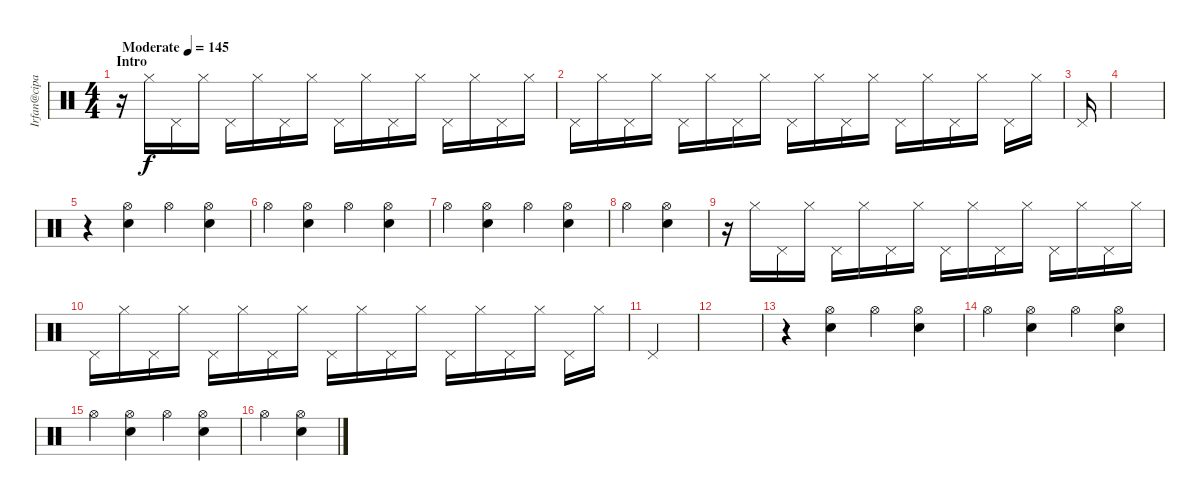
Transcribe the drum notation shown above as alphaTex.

\track ("Irfan@cipan 2" "Irfan@cipa") {instrument percussion}
\staff {score}
\articulation defaults
\ts (4 4)
\section ("" "Intro")
\tempo (145 "Moderate")
\clef neutral
\ks c
r.16{dy f} "Hi-Hat (closed)".16 "Pedal Hi-Hat (hit)".16 "Hi-Hat (closed)".16 "Pedal Hi-Hat (hit)".16 "Hi-Hat (closed)".16 "Pedal Hi-Hat (hit)".16 "Hi-Hat (closed)".16 "Pedal Hi-Hat (hit)".16 "Hi-Hat (closed)".16 "Pedal Hi-Hat (hit)".16 "Hi-Hat (closed)".16 "Pedal Hi-Hat (hit)".16 "Hi-Hat (closed)".16 "Pedal Hi-Hat (hit)".16 "Hi-Hat (closed)".16 |
"Pedal Hi-Hat (hit)".16 "Hi-Hat (closed)".16 "Pedal Hi-Hat (hit)".16 "Hi-Hat (closed)".16 "Pedal Hi-Hat (hit)".16 "Hi-Hat (closed)".16 "Pedal Hi-Hat (hit)".16 "Hi-Hat (closed)".16 "Pedal Hi-Hat (hit)".16 "Hi-Hat (closed)".16 "Pedal Hi-Hat (hit)".16 "Hi-Hat (closed)".16 "Pedal Hi-Hat (hit)".16 "Hi-Hat (closed)".16 "Pedal Hi-Hat (hit)".16 "Hi-Hat (closed)".16 "Pedal Hi-Hat (hit)".16 "Hi-Hat (closed)".16 |
"Pedal Hi-Hat (hit)".16 |
|
r.4 ("Hi-Hat (open)" "Electric Snare (hit)").4 "Hi-Hat (open)".4 ("Hi-Hat (open)" "Electric Snare (hit)").4 |
"Hi-Hat (open)".4 ("Hi-Hat (open)" "Electric Snare (hit)").4 "Hi-Hat (open)".4 ("Hi-Hat (open)" "Electric Snare (hit)").4 |
"Hi-Hat (open)".4 ("Hi-Hat (open)" "Electric Snare (hit)").4 "Hi-Hat (open)".4 ("Hi-Hat (open)" "Electric Snare (hit)").4 |
"Hi-Hat (open)".4 ("Hi-Hat (open)" "Electric Snare (hit)").4 |
r.16 "Hi-Hat (closed)".16 "Pedal Hi-Hat (hit)".16 "Hi-Hat (closed)".16 "Pedal Hi-Hat (hit)".16 "Hi-Hat (closed)".16 "Pedal Hi-Hat (hit)".16 "Hi-Hat (closed)".16 "Pedal Hi-Hat (hit)".16 "Hi-Hat (closed)".16 "Pedal Hi-Hat (hit)".16 "Hi-Hat (closed)".16 "Pedal Hi-Hat (hit)".16 "Hi-Hat (closed)".16 "Pedal Hi-Hat (hit)".16 "Hi-Hat (closed)".16 |
"Pedal Hi-Hat (hit)".16 "Hi-Hat (closed)".16 "Pedal Hi-Hat (hit)".16 "Hi-Hat (closed)".16 "Pedal Hi-Hat (hit)".16 "Hi-Hat (closed)".16 "Pedal Hi-Hat (hit)".16 "Hi-Hat (closed)".16 "Pedal Hi-Hat (hit)".16 "Hi-Hat (closed)".16 "Pedal Hi-Hat (hit)".16 "Hi-Hat (closed)".16 "Pedal Hi-Hat (hit)".16 "Hi-Hat (closed)".16 "Pedal Hi-Hat (hit)".16 "Hi-Hat (closed)".16 "Pedal Hi-Hat (hit)".16 "Hi-Hat (closed)".16 |
"Pedal Hi-Hat (hit)".4 |
|
r.4 ("Hi-Hat (open)" "Electric Snare (hit)").4 "Hi-Hat (open)".4 ("Hi-Hat (open)" "Electric Snare (hit)").4 |
"Hi-Hat (open)".4 ("Hi-Hat (open)" "Electric Snare (hit)").4 "Hi-Hat (open)".4 ("Hi-Hat (open)" "Electric Snare (hit)").4 |
"Hi-Hat (open)".4 ("Hi-Hat (open)" "Electric Snare (hit)").4 "Hi-Hat (open)".4 ("Hi-Hat (open)" "Electric Snare (hit)").4 |
"Hi-Hat (open)".4 ("Hi-Hat (open)" "Electric Snare (hit)").4
